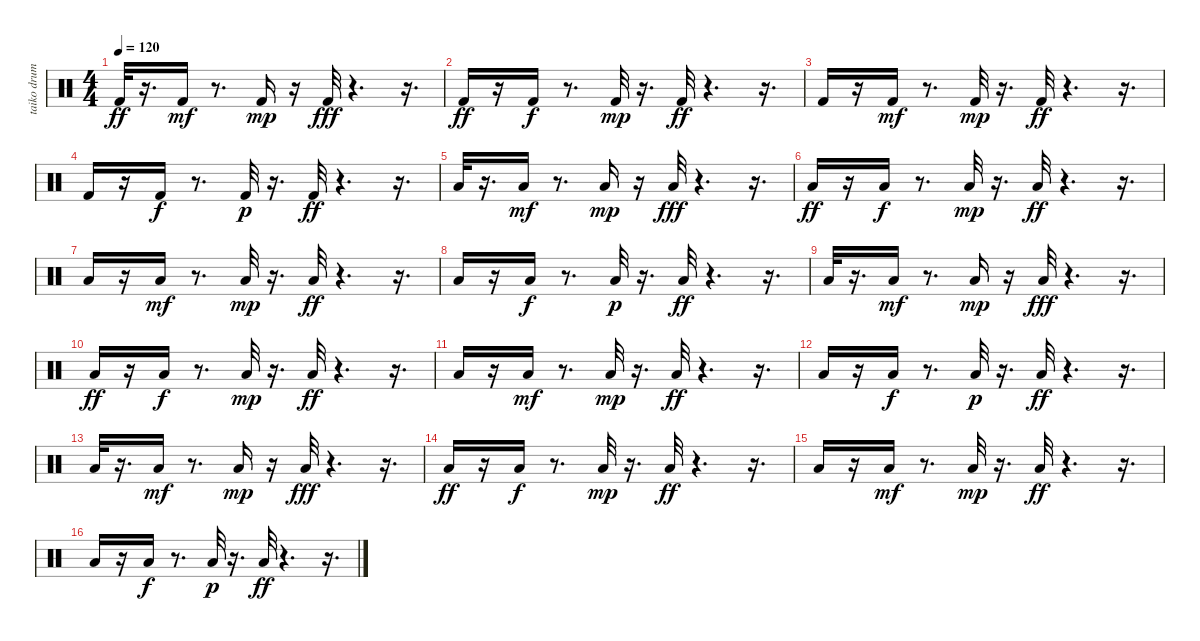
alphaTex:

\track ("taiko drum" "taiko drum") {instrument percussion}
\staff {score}
\articulation defaults
\ts (4 4)
\tempo 120
\clef neutral
\ks c "Kick (hit) 2".32{dy ff}
r.16{d} "Kick (hit) 2".16{dy mf} r.8{d} "Kick (hit) 2".16{dy mp} r.16 "Kick (hit) 2".32{dy fff} r.4{d} r.16{d} |
"Kick (hit) 2".16{dy ff} r.16 "Kick (hit) 2".16{dy f} r.8{d} "Kick (hit) 2".32{dy mp} r.16{d} "Kick (hit) 2".32{dy ff} r.4{d} r.16{d} |
"Kick (hit) 2".16 r.16 "Kick (hit) 2".16{dy mf} r.8{d} "Kick (hit) 2".32{dy mp} r.16{d} "Kick (hit) 2".32{dy ff} r.4{d} r.16{d} |
"Kick (hit) 2".16 r.16 "Kick (hit) 2".16{dy f} r.8{d} "Kick (hit) 2".32{dy p} r.16{d} "Kick (hit) 2".32{dy ff} r.4{d} r.16{d} |
"Low Floor Tom (hit)".32 r.16{d} "Low Floor Tom (hit)".16{dy mf} r.8{d} "Low Floor Tom (hit)".16{dy mp} r.16 "Low Floor Tom (hit)".32{dy fff} r.4{d} r.16{d} |
"Low Floor Tom (hit)".16{dy ff} r.16 "Low Floor Tom (hit)".16{dy f} r.8{d} "Low Floor Tom (hit)".32{dy mp} r.16{d} "Low Floor Tom (hit)".32{dy ff} r.4{d} r.16{d} |
"Low Floor Tom (hit)".16 r.16 "Low Floor Tom (hit)".16{dy mf} r.8{d} "Low Floor Tom (hit)".32{dy mp} r.16{d} "Low Floor Tom (hit)".32{dy ff} r.4{d} r.16{d} |
"Low Floor Tom (hit)".16 r.16 "Low Floor Tom (hit)".16{dy f} r.8{d} "Low Floor Tom (hit)".32{dy p} r.16{d} "Low Floor Tom (hit)".32{dy ff} r.4{d} r.16{d} |
"Low Floor Tom (hit)".32 r.16{d} "Low Floor Tom (hit)".16{dy mf} r.8{d} "Low Floor Tom (hit)".16{dy mp} r.16 "Low Floor Tom (hit)".32{dy fff} r.4{d} r.16{d} |
"Low Floor Tom (hit)".16{dy ff} r.16 "Low Floor Tom (hit)".16{dy f} r.8{d} "Low Floor Tom (hit)".32{dy mp} r.16{d} "Low Floor Tom (hit)".32{dy ff} r.4{d} r.16{d} |
"Low Floor Tom (hit)".16 r.16 "Low Floor Tom (hit)".16{dy mf} r.8{d} "Low Floor Tom (hit)".32{dy mp} r.16{d} "Low Floor Tom (hit)".32{dy ff} r.4{d} r.16{d} |
"Low Floor Tom (hit)".16 r.16 "Low Floor Tom (hit)".16{dy f} r.8{d} "Low Floor Tom (hit)".32{dy p} r.16{d} "Low Floor Tom (hit)".32{dy ff} r.4{d} r.16{d} |
"Low Floor Tom (hit)".32 r.16{d} "Low Floor Tom (hit)".16{dy mf} r.8{d} "Low Floor Tom (hit)".16{dy mp} r.16 "Low Floor Tom (hit)".32{dy fff} r.4{d} r.16{d} |
"Low Floor Tom (hit)".16{dy ff} r.16 "Low Floor Tom (hit)".16{dy f} r.8{d} "Low Floor Tom (hit)".32{dy mp} r.16{d} "Low Floor Tom (hit)".32{dy ff} r.4{d} r.16{d} |
"Low Floor Tom (hit)".16 r.16 "Low Floor Tom (hit)".16{dy mf} r.8{d} "Low Floor Tom (hit)".32{dy mp} r.16{d} "Low Floor Tom (hit)".32{dy ff} r.4{d} r.16{d} |
"Low Floor Tom (hit)".16 r.16 "Low Floor Tom (hit)".16{dy f} r.8{d} "Low Floor Tom (hit)".32{dy p} r.16{d} "Low Floor Tom (hit)".32{dy ff} r.4{d} r.16{d}
